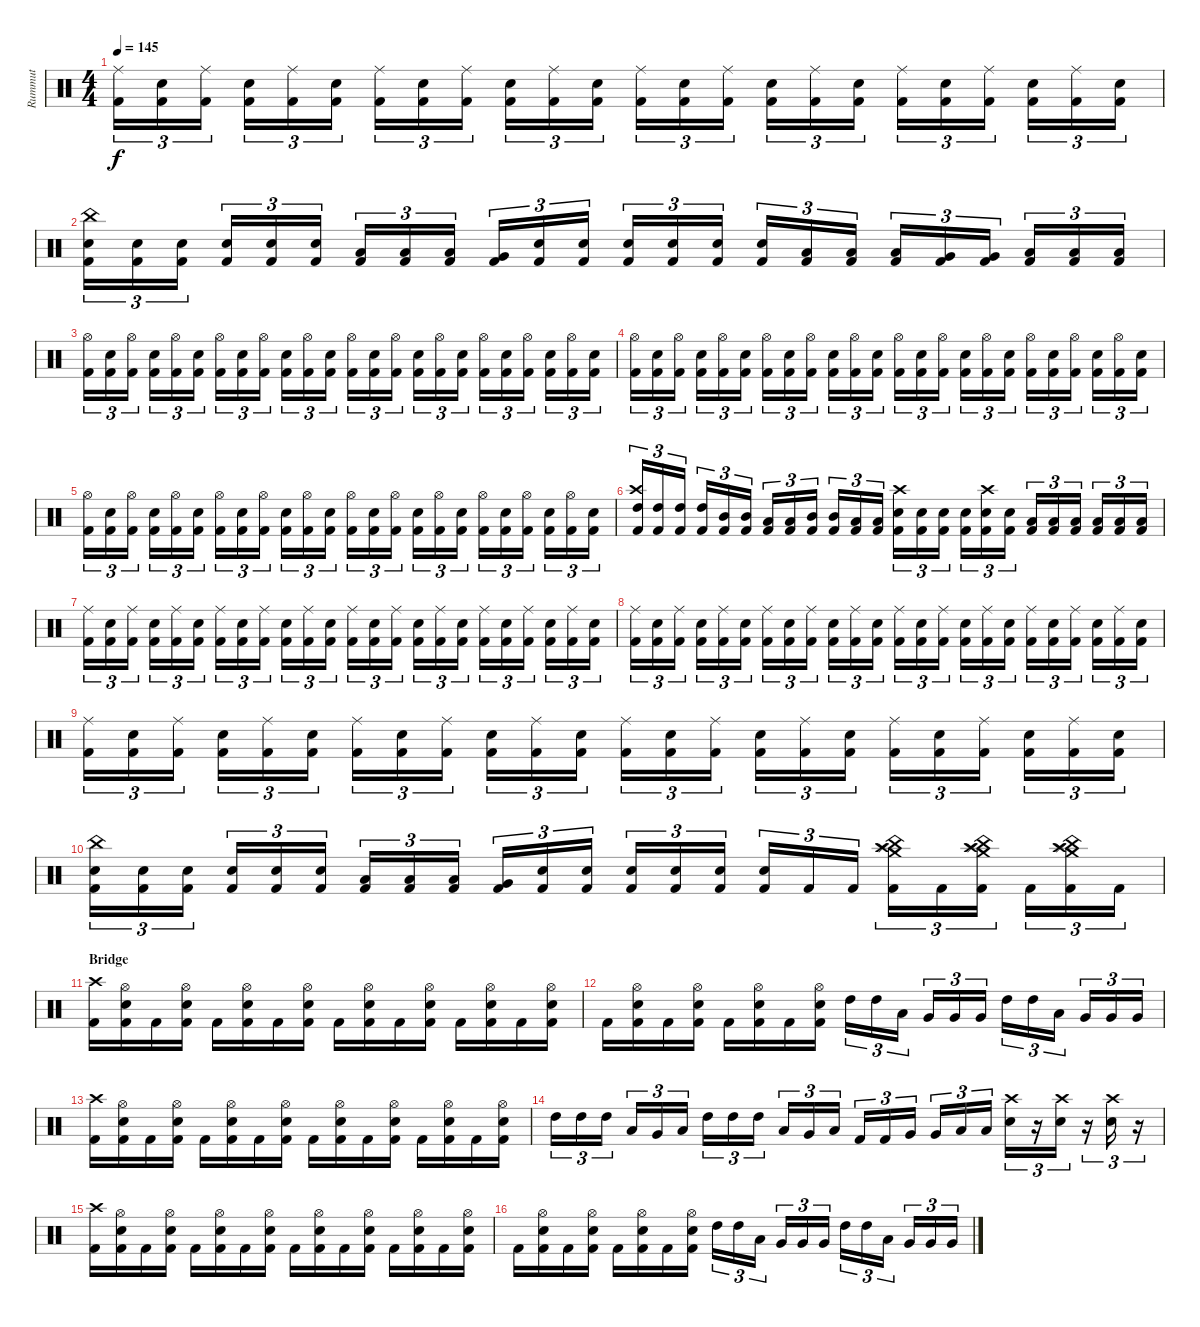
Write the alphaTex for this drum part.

\track ("Rummut" "Rummut") {instrument percussion}
\staff {score}
\articulation defaults
\ts (4 4)
\tempo 145
\clef neutral
\ks c
("Ride (middle)" "Kick (hit) 2").16{tu (3 2) dy f} ("Snare (hit) 2" "Kick (hit) 2").16{tu (3 2)} ("Ride (middle)" "Kick (hit) 2").16{tu (3 2)} ("Snare (hit) 2" "Kick (hit) 2").16{tu (3 2)} ("Ride (middle)" "Kick (hit) 2").16{tu (3 2)} ("Snare (hit) 2" "Kick (hit) 2").16{tu (3 2)} ("Ride (middle)" "Kick (hit) 2").16{tu (3 2)} ("Snare (hit) 2" "Kick (hit) 2").16{tu (3 2)} ("Ride (middle)" "Kick (hit) 2").16{tu (3 2)} ("Snare (hit) 2" "Kick (hit) 2").16{tu (3 2)} ("Ride (middle)" "Kick (hit) 2").16{tu (3 2)} ("Snare (hit) 2" "Kick (hit) 2").16{tu (3 2)} ("Ride (middle)" "Kick (hit) 2").16{tu (3 2)} ("Snare (hit) 2" "Kick (hit) 2").16{tu (3 2)} ("Ride (middle)" "Kick (hit) 2").16{tu (3 2)} ("Snare (hit) 2" "Kick (hit) 2").16{tu (3 2)} ("Ride (middle)" "Kick (hit) 2").16{tu (3 2)} ("Snare (hit) 2" "Kick (hit) 2").16{tu (3 2)} ("Ride (middle)" "Kick (hit) 2").16{tu (3 2)} ("Snare (hit) 2" "Kick (hit) 2").16{tu (3 2)} ("Ride (middle)" "Kick (hit) 2").16{tu (3 2)} ("Snare (hit) 2" "Kick (hit) 2").16{tu (3 2)} ("Ride (middle)" "Kick (hit) 2").16{tu (3 2)} ("Snare (hit) 2" "Kick (hit) 2").16{tu (3 2)} |
("China (hit)" "Snare (hit) 2" "Kick (hit) 2").16{tu (3 2)} ("Snare (hit) 2" "Kick (hit) 2").16{tu (3 2)} ("Snare (hit) 2" "Kick (hit) 2").16{tu (3 2)} ("Snare (hit) 2" "Kick (hit) 2").16{tu (3 2)} ("Snare (hit) 2" "Kick (hit) 2").16{tu (3 2)} ("Snare (hit) 2" "Kick (hit) 2").16{tu (3 2)} ("Low Tom (hit)" "Kick (hit) 2").16{tu (3 2)} ("Low Tom (hit)" "Kick (hit) 2").16{tu (3 2)} ("Low Tom (hit)" "Kick (hit) 2").16{tu (3 2)} ("Very Low Tom (hit)" "Kick (hit) 2").16{tu (3 2)} ("Snare (hit) 2" "Kick (hit) 2").16{tu (3 2)} ("Snare (hit) 2" "Kick (hit) 2").16{tu (3 2)} ("Snare (hit) 2" "Kick (hit) 2").16{tu (3 2)} ("Snare (hit) 2" "Kick (hit) 2").16{tu (3 2)} ("Snare (hit) 2" "Kick (hit) 2").16{tu (3 2)} ("Snare (hit) 2" "Kick (hit) 2").16{tu (3 2)} ("Low Tom (hit)" "Kick (hit) 2").16{tu (3 2)} ("Low Tom (hit)" "Kick (hit) 2").16{tu (3 2)} ("Low Tom (hit)" "Kick (hit) 2").16{tu (3 2)} ("Very Low Tom (hit)" "Kick (hit) 2").16{tu (3 2)} ("Very Low Tom (hit)" "Kick (hit) 2").16{tu (3 2)} ("Low Floor Tom (hit)" "Kick (hit) 2").16{tu (3 2)} ("Low Floor Tom (hit)" "Kick (hit) 2").16{tu (3 2)} ("Low Floor Tom (hit)" "Kick (hit) 2").16{tu (3 2)} |
("Hi-Hat (open)" "Kick (hit) 2").16{tu (3 2)} ("Snare (hit) 2" "Kick (hit) 2").16{tu (3 2)} ("Hi-Hat (open)" "Kick (hit) 2").16{tu (3 2)} ("Snare (hit) 2" "Kick (hit) 2").16{tu (3 2)} ("Hi-Hat (open)" "Kick (hit) 2").16{tu (3 2)} ("Snare (hit) 2" "Kick (hit) 2").16{tu (3 2)} ("Hi-Hat (open)" "Kick (hit) 2").16{tu (3 2)} ("Snare (hit) 2" "Kick (hit) 2").16{tu (3 2)} ("Hi-Hat (open)" "Kick (hit) 2").16{tu (3 2)} ("Snare (hit) 2" "Kick (hit) 2").16{tu (3 2)} ("Hi-Hat (open)" "Kick (hit) 2").16{tu (3 2)} ("Snare (hit) 2" "Kick (hit) 2").16{tu (3 2)} ("Hi-Hat (open)" "Kick (hit) 2").16{tu (3 2)} ("Snare (hit) 2" "Kick (hit) 2").16{tu (3 2)} ("Hi-Hat (open)" "Kick (hit) 2").16{tu (3 2)} ("Snare (hit) 2" "Kick (hit) 2").16{tu (3 2)} ("Hi-Hat (open)" "Kick (hit) 2").16{tu (3 2)} ("Snare (hit) 2" "Kick (hit) 2").16{tu (3 2)} ("Hi-Hat (open)" "Kick (hit) 2").16{tu (3 2)} ("Snare (hit) 2" "Kick (hit) 2").16{tu (3 2)} ("Hi-Hat (open)" "Kick (hit) 2").16{tu (3 2)} ("Snare (hit) 2" "Kick (hit) 2").16{tu (3 2)} ("Hi-Hat (open)" "Kick (hit) 2").16{tu (3 2)} ("Snare (hit) 2" "Kick (hit) 2").16{tu (3 2)} |
("Hi-Hat (open)" "Kick (hit) 2").16{tu (3 2)} ("Snare (hit) 2" "Kick (hit) 2").16{tu (3 2)} ("Hi-Hat (open)" "Kick (hit) 2").16{tu (3 2)} ("Snare (hit) 2" "Kick (hit) 2").16{tu (3 2)} ("Hi-Hat (open)" "Kick (hit) 2").16{tu (3 2)} ("Snare (hit) 2" "Kick (hit) 2").16{tu (3 2)} ("Hi-Hat (open)" "Kick (hit) 2").16{tu (3 2)} ("Snare (hit) 2" "Kick (hit) 2").16{tu (3 2)} ("Hi-Hat (open)" "Kick (hit) 2").16{tu (3 2)} ("Snare (hit) 2" "Kick (hit) 2").16{tu (3 2)} ("Hi-Hat (open)" "Kick (hit) 2").16{tu (3 2)} ("Snare (hit) 2" "Kick (hit) 2").16{tu (3 2)} ("Hi-Hat (open)" "Kick (hit) 2").16{tu (3 2)} ("Snare (hit) 2" "Kick (hit) 2").16{tu (3 2)} ("Hi-Hat (open)" "Kick (hit) 2").16{tu (3 2)} ("Snare (hit) 2" "Kick (hit) 2").16{tu (3 2)} ("Hi-Hat (open)" "Kick (hit) 2").16{tu (3 2)} ("Snare (hit) 2" "Kick (hit) 2").16{tu (3 2)} ("Hi-Hat (open)" "Kick (hit) 2").16{tu (3 2)} ("Snare (hit) 2" "Kick (hit) 2").16{tu (3 2)} ("Hi-Hat (open)" "Kick (hit) 2").16{tu (3 2)} ("Snare (hit) 2" "Kick (hit) 2").16{tu (3 2)} ("Hi-Hat (open)" "Kick (hit) 2").16{tu (3 2)} ("Snare (hit) 2" "Kick (hit) 2").16{tu (3 2)} |
("Hi-Hat (open)" "Kick (hit) 2").16{tu (3 2)} ("Snare (hit) 2" "Kick (hit) 2").16{tu (3 2)} ("Hi-Hat (open)" "Kick (hit) 2").16{tu (3 2)} ("Snare (hit) 2" "Kick (hit) 2").16{tu (3 2)} ("Hi-Hat (open)" "Kick (hit) 2").16{tu (3 2)} ("Snare (hit) 2" "Kick (hit) 2").16{tu (3 2)} ("Hi-Hat (open)" "Kick (hit) 2").16{tu (3 2)} ("Snare (hit) 2" "Kick (hit) 2").16{tu (3 2)} ("Hi-Hat (open)" "Kick (hit) 2").16{tu (3 2)} ("Snare (hit) 2" "Kick (hit) 2").16{tu (3 2)} ("Hi-Hat (open)" "Kick (hit) 2").16{tu (3 2)} ("Snare (hit) 2" "Kick (hit) 2").16{tu (3 2)} ("Hi-Hat (open)" "Kick (hit) 2").16{tu (3 2)} ("Snare (hit) 2" "Kick (hit) 2").16{tu (3 2)} ("Hi-Hat (open)" "Kick (hit) 2").16{tu (3 2)} ("Snare (hit) 2" "Kick (hit) 2").16{tu (3 2)} ("Hi-Hat (open)" "Kick (hit) 2").16{tu (3 2)} ("Snare (hit) 2" "Kick (hit) 2").16{tu (3 2)} ("Hi-Hat (open)" "Kick (hit) 2").16{tu (3 2)} ("Snare (hit) 2" "Kick (hit) 2").16{tu (3 2)} ("Hi-Hat (open)" "Kick (hit) 2").16{tu (3 2)} ("Snare (hit) 2" "Kick (hit) 2").16{tu (3 2)} ("Hi-Hat (open)" "Kick (hit) 2").16{tu (3 2)} ("Snare (hit) 2" "Kick (hit) 2").16{tu (3 2)} |
("Crash high (hit)" "High Tom (hit)" "Kick (hit) 2").16{tu (3 2)} ("High Tom (hit)" "Kick (hit) 2").16{tu (3 2)} ("High Tom (hit)" "Kick (hit) 2").16{tu (3 2)} ("High Tom (hit)" "Kick (hit) 2").16{tu (3 2)} ("Mid Tom (hit)" "Kick (hit) 2").16{tu (3 2)} ("Mid Tom (hit)" "Kick (hit) 2").16{tu (3 2)} ("Low Tom (hit)" "Kick (hit) 2").16{tu (3 2)} ("Low Tom (hit)" "Kick (hit) 2").16{tu (3 2)} ("Mid Tom (hit)" "Kick (hit) 2").16{tu (3 2)} ("Mid Tom (hit)" "Kick (hit) 2").16{tu (3 2)} ("Low Tom (hit)" "Kick (hit) 2").16{tu (3 2)} ("Low Tom (hit)" "Kick (hit) 2").16{tu (3 2)} ("Crash high (hit)" "Snare (hit) 2" "Kick (hit) 2").16{tu (3 2)} ("Snare (hit) 2" "Kick (hit) 2").16{tu (3 2)} ("Snare (hit) 2" "Kick (hit) 2").16{tu (3 2)} ("Snare (hit) 2" "Kick (hit) 2").16{tu (3 2)} ("Crash high (hit)" "Snare (hit) 2" "Kick (hit) 2").16{tu (3 2)} ("Snare (hit) 2" "Kick (hit) 2").16{tu (3 2)} ("Low Tom (hit)" "Kick (hit) 2").16{tu (3 2)} ("Low Tom (hit)" "Kick (hit) 2").16{tu (3 2)} ("Low Tom (hit)" "Kick (hit) 2").16{tu (3 2)} ("Low Tom (hit)" "Kick (hit) 2").16{tu (3 2)} ("Low Tom (hit)" "Kick (hit) 2").16{tu (3 2)} ("Low Tom (hit)" "Kick (hit) 2").16{tu (3 2)} |
("Ride (middle)" "Kick (hit) 2").16{tu (3 2)} ("Snare (hit) 2" "Kick (hit) 2").16{tu (3 2)} ("Ride (middle)" "Kick (hit) 2").16{tu (3 2)} ("Snare (hit) 2" "Kick (hit) 2").16{tu (3 2)} ("Ride (middle)" "Kick (hit) 2").16{tu (3 2)} ("Snare (hit) 2" "Kick (hit) 2").16{tu (3 2)} ("Ride (middle)" "Kick (hit) 2").16{tu (3 2)} ("Snare (hit) 2" "Kick (hit) 2").16{tu (3 2)} ("Ride (middle)" "Kick (hit) 2").16{tu (3 2)} ("Snare (hit) 2" "Kick (hit) 2").16{tu (3 2)} ("Ride (middle)" "Kick (hit) 2").16{tu (3 2)} ("Snare (hit) 2" "Kick (hit) 2").16{tu (3 2)} ("Ride (middle)" "Kick (hit) 2").16{tu (3 2)} ("Snare (hit) 2" "Kick (hit) 2").16{tu (3 2)} ("Ride (middle)" "Kick (hit) 2").16{tu (3 2)} ("Snare (hit) 2" "Kick (hit) 2").16{tu (3 2)} ("Ride (middle)" "Kick (hit) 2").16{tu (3 2)} ("Snare (hit) 2" "Kick (hit) 2").16{tu (3 2)} ("Ride (middle)" "Kick (hit) 2").16{tu (3 2)} ("Snare (hit) 2" "Kick (hit) 2").16{tu (3 2)} ("Ride (middle)" "Kick (hit) 2").16{tu (3 2)} ("Snare (hit) 2" "Kick (hit) 2").16{tu (3 2)} ("Ride (middle)" "Kick (hit) 2").16{tu (3 2)} ("Snare (hit) 2" "Kick (hit) 2").16{tu (3 2)} |
("Ride (middle)" "Kick (hit) 2").16{tu (3 2)} ("Snare (hit) 2" "Kick (hit) 2").16{tu (3 2)} ("Ride (middle)" "Kick (hit) 2").16{tu (3 2)} ("Snare (hit) 2" "Kick (hit) 2").16{tu (3 2)} ("Ride (middle)" "Kick (hit) 2").16{tu (3 2)} ("Snare (hit) 2" "Kick (hit) 2").16{tu (3 2)} ("Ride (middle)" "Kick (hit) 2").16{tu (3 2)} ("Snare (hit) 2" "Kick (hit) 2").16{tu (3 2)} ("Ride (middle)" "Kick (hit) 2").16{tu (3 2)} ("Snare (hit) 2" "Kick (hit) 2").16{tu (3 2)} ("Ride (middle)" "Kick (hit) 2").16{tu (3 2)} ("Snare (hit) 2" "Kick (hit) 2").16{tu (3 2)} ("Ride (middle)" "Kick (hit) 2").16{tu (3 2)} ("Snare (hit) 2" "Kick (hit) 2").16{tu (3 2)} ("Ride (middle)" "Kick (hit) 2").16{tu (3 2)} ("Snare (hit) 2" "Kick (hit) 2").16{tu (3 2)} ("Ride (middle)" "Kick (hit) 2").16{tu (3 2)} ("Snare (hit) 2" "Kick (hit) 2").16{tu (3 2)} ("Ride (middle)" "Kick (hit) 2").16{tu (3 2)} ("Snare (hit) 2" "Kick (hit) 2").16{tu (3 2)} ("Ride (middle)" "Kick (hit) 2").16{tu (3 2)} ("Snare (hit) 2" "Kick (hit) 2").16{tu (3 2)} ("Ride (middle)" "Kick (hit) 2").16{tu (3 2)} ("Snare (hit) 2" "Kick (hit) 2").16{tu (3 2)} |
("Ride (middle)" "Kick (hit) 2").16{tu (3 2)} ("Snare (hit) 2" "Kick (hit) 2").16{tu (3 2)} ("Ride (middle)" "Kick (hit) 2").16{tu (3 2)} ("Snare (hit) 2" "Kick (hit) 2").16{tu (3 2)} ("Ride (middle)" "Kick (hit) 2").16{tu (3 2)} ("Snare (hit) 2" "Kick (hit) 2").16{tu (3 2)} ("Ride (middle)" "Kick (hit) 2").16{tu (3 2)} ("Snare (hit) 2" "Kick (hit) 2").16{tu (3 2)} ("Ride (middle)" "Kick (hit) 2").16{tu (3 2)} ("Snare (hit) 2" "Kick (hit) 2").16{tu (3 2)} ("Ride (middle)" "Kick (hit) 2").16{tu (3 2)} ("Snare (hit) 2" "Kick (hit) 2").16{tu (3 2)} ("Ride (middle)" "Kick (hit) 2").16{tu (3 2)} ("Snare (hit) 2" "Kick (hit) 2").16{tu (3 2)} ("Ride (middle)" "Kick (hit) 2").16{tu (3 2)} ("Snare (hit) 2" "Kick (hit) 2").16{tu (3 2)} ("Ride (middle)" "Kick (hit) 2").16{tu (3 2)} ("Snare (hit) 2" "Kick (hit) 2").16{tu (3 2)} ("Ride (middle)" "Kick (hit) 2").16{tu (3 2)} ("Snare (hit) 2" "Kick (hit) 2").16{tu (3 2)} ("Ride (middle)" "Kick (hit) 2").16{tu (3 2)} ("Snare (hit) 2" "Kick (hit) 2").16{tu (3 2)} ("Ride (middle)" "Kick (hit) 2").16{tu (3 2)} ("Snare (hit) 2" "Kick (hit) 2").16{tu (3 2)} |
("China (hit)" "Snare (hit) 2" "Kick (hit) 2").16{tu (3 2)} ("Snare (hit) 2" "Kick (hit) 2").16{tu (3 2)} ("Snare (hit) 2" "Kick (hit) 2").16{tu (3 2)} ("Snare (hit) 2" "Kick (hit) 2").16{tu (3 2)} ("Snare (hit) 2" "Kick (hit) 2").16{tu (3 2)} ("Snare (hit) 2" "Kick (hit) 2").16{tu (3 2)} ("Low Tom (hit)" "Kick (hit) 2").16{tu (3 2)} ("Low Tom (hit)" "Kick (hit) 2").16{tu (3 2)} ("Low Tom (hit)" "Kick (hit) 2").16{tu (3 2)} ("Very Low Tom (hit)" "Kick (hit) 2").16{tu (3 2)} ("Snare (hit) 2" "Kick (hit) 2").16{tu (3 2)} ("Snare (hit) 2" "Kick (hit) 2").16{tu (3 2)} ("Snare (hit) 2" "Kick (hit) 2").16{tu (3 2)} ("Snare (hit) 2" "Kick (hit) 2").16{tu (3 2)} ("Snare (hit) 2" "Kick (hit) 2").16{tu (3 2)} ("Snare (hit) 2" "Kick (hit) 2").16{tu (3 2)} "Kick (hit) 2".16{tu (3 2)} "Kick (hit) 2".16{tu (3 2)} ("Crash high (hit)" "Crash medium (hit)" "China (hit)" "Splash (hit)" "Kick (hit) 2").16{tu (3 2)} "Kick (hit) 2".16{tu (3 2)} ("Crash high (hit)" "Crash medium (hit)" "China (hit)" "Splash (hit)" "Kick (hit) 2").16{tu (3 2)} "Kick (hit) 2".16{tu (3 2)} ("Crash high (hit)" "Crash medium (hit)" "China (hit)" "Splash (hit)" "Kick (hit) 2").16{tu (3 2)} "Kick (hit) 2".16{tu (3 2)} |
\section ("" "Bridge")
("Crash high (hit)" "Kick (hit) 2").16 ("Hi-Hat (open)" "Snare (hit) 2" "Kick (hit) 2").16 "Kick (hit) 2".16 ("Hi-Hat (open)" "Snare (hit) 2" "Kick (hit) 2").16 "Kick (hit) 2".16 ("Hi-Hat (open)" "Snare (hit) 2" "Kick (hit) 2").16 "Kick (hit) 2".16 ("Hi-Hat (open)" "Snare (hit) 2" "Kick (hit) 2").16 "Kick (hit) 2".16 ("Hi-Hat (open)" "Snare (hit) 2" "Kick (hit) 2").16 "Kick (hit) 2".16 ("Hi-Hat (open)" "Snare (hit) 2" "Kick (hit) 2").16 "Kick (hit) 2".16 ("Hi-Hat (open)" "Snare (hit) 2" "Kick (hit) 2").16 "Kick (hit) 2".16 ("Hi-Hat (open)" "Snare (hit) 2" "Kick (hit) 2").16 |
"Kick (hit) 2".16 ("Hi-Hat (open)" "Snare (hit) 2" "Kick (hit) 2").16 "Kick (hit) 2".16 ("Hi-Hat (open)" "Snare (hit) 2" "Kick (hit) 2").16 "Kick (hit) 2".16 ("Hi-Hat (open)" "Snare (hit) 2" "Kick (hit) 2").16 "Kick (hit) 2".16 ("Hi-Hat (open)" "Snare (hit) 2" "Kick (hit) 2").16 "High Tom (hit)".16{tu (3 2)} "High Tom (hit)".16{tu (3 2)} "Low Tom (hit)".16{tu (3 2)} "Very Low Tom (hit)".16{tu (3 2)} "Very Low Tom (hit)".16{tu (3 2)} "Very Low Tom (hit)".16{tu (3 2)} "High Tom (hit)".16{tu (3 2)} "High Tom (hit)".16{tu (3 2)} "Low Tom (hit)".16{tu (3 2)} "Very Low Tom (hit)".16{tu (3 2)} "Very Low Tom (hit)".16{tu (3 2)} "Very Low Tom (hit)".16{tu (3 2)} |
("Crash high (hit)" "Kick (hit) 2").16 ("Hi-Hat (open)" "Snare (hit) 2" "Kick (hit) 2").16 "Kick (hit) 2".16 ("Hi-Hat (open)" "Snare (hit) 2" "Kick (hit) 2").16 "Kick (hit) 2".16 ("Hi-Hat (open)" "Snare (hit) 2" "Kick (hit) 2").16 "Kick (hit) 2".16 ("Hi-Hat (open)" "Snare (hit) 2" "Kick (hit) 2").16 "Kick (hit) 2".16 ("Hi-Hat (open)" "Snare (hit) 2" "Kick (hit) 2").16 "Kick (hit) 2".16 ("Hi-Hat (open)" "Snare (hit) 2" "Kick (hit) 2").16 "Kick (hit) 2".16 ("Hi-Hat (open)" "Snare (hit) 2" "Kick (hit) 2").16 "Kick (hit) 2".16 ("Hi-Hat (open)" "Snare (hit) 2" "Kick (hit) 2").16 |
"High Tom (hit)".16{tu (3 2)} "High Tom (hit)".16{tu (3 2)} "High Tom (hit)".16{tu (3 2)} "Low Tom (hit)".16{tu (3 2)} "Very Low Tom (hit)".16{tu (3 2)} "Low Floor Tom (hit)".16{tu (3 2)} "High Tom (hit)".16{tu (3 2)} "High Tom (hit)".16{tu (3 2)} "High Tom (hit)".16{tu (3 2)} "Low Tom (hit)".16{tu (3 2)} "Very Low Tom (hit)".16{tu (3 2)} "Low Floor Tom (hit)".16{tu (3 2)} "Kick (hit) 2".16{tu (3 2)} "Kick (hit) 2".16{tu (3 2)} "Very Low Tom (hit)".16{tu (3 2)} "Very Low Tom (hit)".16{tu (3 2)} "Low Tom (hit)".16{tu (3 2)} "Low Tom (hit)".16{tu (3 2)} ("Crash high (hit)" "Snare (hit) 2").16{tu (3 2)} r.16{tu (3 2)} ("Crash high (hit)" "Snare (hit) 2").16{tu (3 2)} r.16{tu (3 2)} ("Crash high (hit)" "Snare (hit) 2").16{tu (3 2)} r.16{tu (3 2)} |
("Crash high (hit)" "Kick (hit) 2").16 ("Hi-Hat (open)" "Snare (hit) 2" "Kick (hit) 2").16 "Kick (hit) 2".16 ("Hi-Hat (open)" "Snare (hit) 2" "Kick (hit) 2").16 "Kick (hit) 2".16 ("Hi-Hat (open)" "Snare (hit) 2" "Kick (hit) 2").16 "Kick (hit) 2".16 ("Hi-Hat (open)" "Snare (hit) 2" "Kick (hit) 2").16 "Kick (hit) 2".16 ("Hi-Hat (open)" "Snare (hit) 2" "Kick (hit) 2").16 "Kick (hit) 2".16 ("Hi-Hat (open)" "Snare (hit) 2" "Kick (hit) 2").16 "Kick (hit) 2".16 ("Hi-Hat (open)" "Snare (hit) 2" "Kick (hit) 2").16 "Kick (hit) 2".16 ("Hi-Hat (open)" "Snare (hit) 2" "Kick (hit) 2").16 |
"Kick (hit) 2".16 ("Hi-Hat (open)" "Snare (hit) 2" "Kick (hit) 2").16 "Kick (hit) 2".16 ("Hi-Hat (open)" "Snare (hit) 2" "Kick (hit) 2").16 "Kick (hit) 2".16 ("Hi-Hat (open)" "Snare (hit) 2" "Kick (hit) 2").16 "Kick (hit) 2".16 ("Hi-Hat (open)" "Snare (hit) 2" "Kick (hit) 2").16 "High Tom (hit)".16{tu (3 2)} "High Tom (hit)".16{tu (3 2)} "Low Tom (hit)".16{tu (3 2)} "Very Low Tom (hit)".16{tu (3 2)} "Very Low Tom (hit)".16{tu (3 2)} "Very Low Tom (hit)".16{tu (3 2)} "High Tom (hit)".16{tu (3 2)} "High Tom (hit)".16{tu (3 2)} "Low Tom (hit)".16{tu (3 2)} "Very Low Tom (hit)".16{tu (3 2)} "Very Low Tom (hit)".16{tu (3 2)} "Very Low Tom (hit)".16{tu (3 2)}
